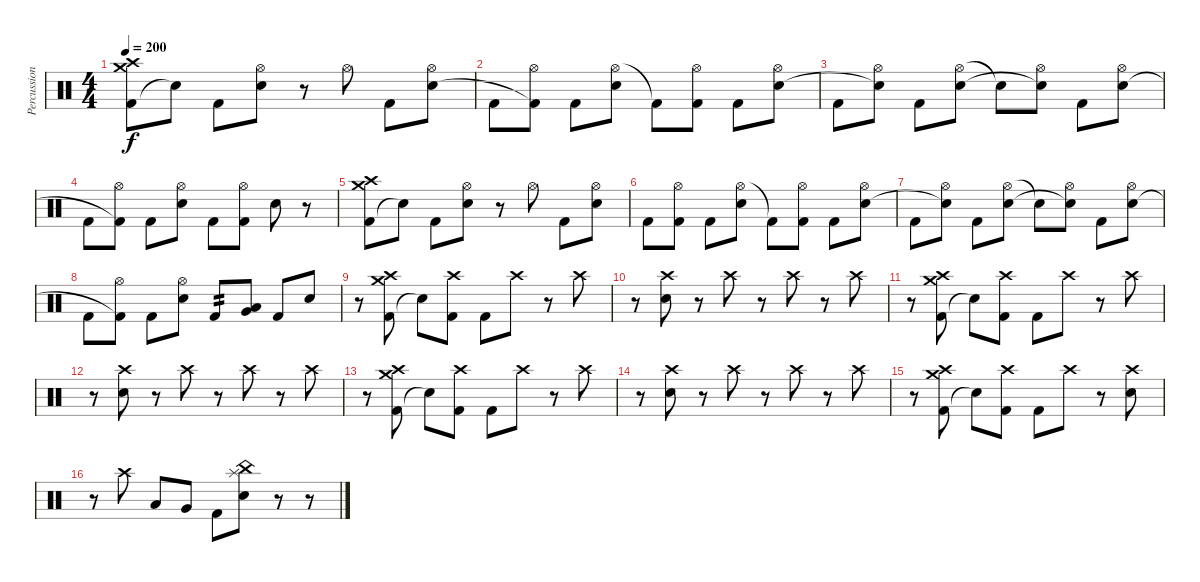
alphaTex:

\track ("Percussion" "Percussion") {instrument percussion}
\staff {score}
\articulation defaults
\ts (4 4)
\tempo 200
\clef neutral
\ks c
("Kick (hit) 2" "Crash medium (hit)" "Crash high (hit)").8{dy f} "Snare (hit)"{t}.8 "Kick (hit) 2".8 ("Snare (hit) 2" "Hi-Hat (open)").8 r.8 "Hi-Hat (open)".8 "Kick (hit) 2".8 ("Hi-Hat (open)" "Snare (hit) 2").8 |
"Kick (hit) 2".8 ("Hi-Hat (open)" "Kick (hit) 2"{t}).8 "Kick (hit) 2".8 ("Hi-Hat (open)" "Snare (hit) 2").8 "Kick (hit) 2"{t}.8 ("Hi-Hat (open)" "Kick (hit) 2").8 "Kick (hit) 2".8 ("Hi-Hat (open)" "Snare (hit) 2").8 |
"Kick (hit) 2".8 ("Hi-Hat (open)" "Snare (hit)"{t}).8 "Kick (hit) 2".8 ("Hi-Hat (open)" "Snare (hit) 2").8 "Snare (hit)"{t}.8 ("Hi-Hat (open)" "Snare (hit)"{t}).8 "Kick (hit) 2".8 ("Hi-Hat (open)" "Snare (hit) 2").8 |
"Kick (hit) 2".8 ("Hi-Hat (open)" "Kick (hit) 2"{t}).8 "Kick (hit) 2".8 ("Hi-Hat (open)" "Snare (hit) 2").8 "Kick (hit) 2".8 ("Hi-Hat (open)" "Kick (hit) 2").8 "Snare (hit) 2".8 r.8 |
("Kick (hit) 2" "Crash medium (hit)" "Crash high (hit)").8 "Snare (hit)"{t}.8 "Kick (hit) 2".8 ("Snare (hit) 2" "Hi-Hat (open)").8 r.8 "Hi-Hat (open)".8 "Kick (hit) 2".8 ("Hi-Hat (open)" "Snare (hit) 2").8 |
"Kick (hit) 2".8 ("Hi-Hat (open)" "Kick (hit) 2").8 "Kick (hit) 2".8 ("Hi-Hat (open)" "Snare (hit) 2").8 "Kick (hit) 2"{t}.8 ("Hi-Hat (open)" "Kick (hit) 2").8 "Kick (hit) 2".8 ("Hi-Hat (open)" "Snare (hit) 2").8 |
"Kick (hit) 2".8 ("Hi-Hat (open)" "Snare (hit)"{t}).8 "Kick (hit) 2".8 ("Hi-Hat (open)" "Snare (hit) 2").8 "Snare (hit)"{t}.8 ("Hi-Hat (open)" "Snare (hit)"{t}).8 "Kick (hit) 2".8 ("Hi-Hat (open)" "Snare (hit) 2").8 |
"Kick (hit) 2".8 ("Hi-Hat (open)" "Kick (hit) 2"{t}).8 "Kick (hit) 2".8 ("Hi-Hat (open)" "Snare (hit) 2").8 "Kick (hit) 2".8{tp 2} ("Low Floor Tom (hit)" "Very Low Tom (hit)").8 "Kick (hit) 2".8 "Snare (hit) 2".8 |
r.8 ("Kick (hit) 2" "Crash medium (hit)" "Crash high (hit)").8 "Snare (hit)"{t}.8 ("Kick (hit) 2" "Crash high (hit)").8 "Kick (hit) 2".8 "Crash high (hit)".8 r.8 "Crash high (hit)".8 |
r.8 ("Snare (hit) 2" "Crash high (hit)").8 r.8 "Crash high (hit)".8 r.8 "Crash high (hit)".8 r.8 "Crash high (hit)".8 |
r.8 ("Kick (hit) 2" "Crash medium (hit)" "Crash high (hit)").8 "Snare (hit)"{t}.8 ("Kick (hit) 2" "Crash high (hit)").8 "Kick (hit) 2".8 "Crash high (hit)".8 r.8 "Crash high (hit)".8 |
r.8 ("Snare (hit) 2" "Crash high (hit)").8 r.8 "Crash high (hit)".8 r.8 "Crash high (hit)".8 r.8 "Crash high (hit)".8 |
r.8 ("Kick (hit) 2" "Crash medium (hit)" "Crash high (hit)").8 "Snare (hit)"{t}.8 ("Kick (hit) 2" "Crash high (hit)").8 "Kick (hit) 2".8 "Crash high (hit)".8 r.8 "Crash high (hit)".8 |
r.8 ("Snare (hit) 2" "Crash high (hit)").8 r.8 "Crash high (hit)".8 r.8 "Crash high (hit)".8 r.8 "Crash high (hit)".8 |
r.8 ("Kick (hit) 2" "Crash medium (hit)" "Crash high (hit)").8 "Snare (hit)"{t}.8 ("Kick (hit) 2" "Crash high (hit)").8 "Kick (hit) 2".8 "Crash high (hit)".8 r.8 ("Crash high (hit)" "Snare (hit) 2").8 |
r.8 "Crash high (hit)".8 "Low Tom (hit)".8 "Very Low Tom (hit)".8 "Kick (hit) 2".8 ("Snare (hit) 2" "China (hit)" "Splash (hit)").8 r.8 r.8
